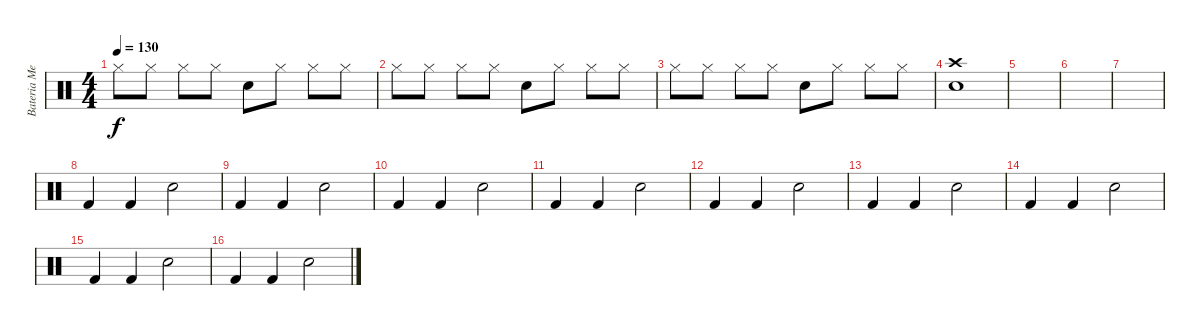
\track ("Bateria Men" "Bateria Me") {instrument percussion}
\staff {score}
\articulation defaults
\ts (4 4)
\tempo 130
\clef neutral
\ks c "Hi-Hat (closed)".8{dy f} "Hi-Hat (closed)".8 "Hi-Hat (closed)".8 "Hi-Hat (closed)".8 "Electric Snare (hit)".8 "Hi-Hat (closed)".8 "Hi-Hat (closed)".8 "Hi-Hat (closed)".8
|
"Hi-Hat (closed)".8 "Hi-Hat (closed)".8 "Hi-Hat (closed)".8 "Hi-Hat (closed)".8 "Electric Snare (hit)".8 "Hi-Hat (closed)".8 "Hi-Hat (closed)".8 "Hi-Hat (closed)".8 |
"Hi-Hat (closed)".8 "Hi-Hat (closed)".8 "Hi-Hat (closed)".8 "Hi-Hat (closed)".8 "Electric Snare (hit)".8 "Hi-Hat (closed)".8 "Hi-Hat (closed)".8 "Hi-Hat (closed)".8 |
("Crash high (hit)" "Electric Snare (hit)").1 |
|
|
|
"Kick (hit) 2".4 "Kick (hit) 2".4 "Electric Snare (hit)".2 |
"Kick (hit) 2".4 "Kick (hit) 2".4 "Electric Snare (hit)".2 |
"Kick (hit) 2".4 "Kick (hit) 2".4 "Electric Snare (hit)".2 |
"Kick (hit) 2".4 "Kick (hit) 2".4 "Electric Snare (hit)".2 |
"Kick (hit) 2".4 "Kick (hit) 2".4 "Electric Snare (hit)".2 |
"Kick (hit) 2".4 "Kick (hit) 2".4 "Electric Snare (hit)".2 |
"Kick (hit) 2".4 "Kick (hit) 2".4 "Electric Snare (hit)".2 |
"Kick (hit) 2".4 "Kick (hit) 2".4 "Electric Snare (hit)".2 |
"Kick (hit) 2".4 "Kick (hit) 2".4 "Electric Snare (hit)".2
